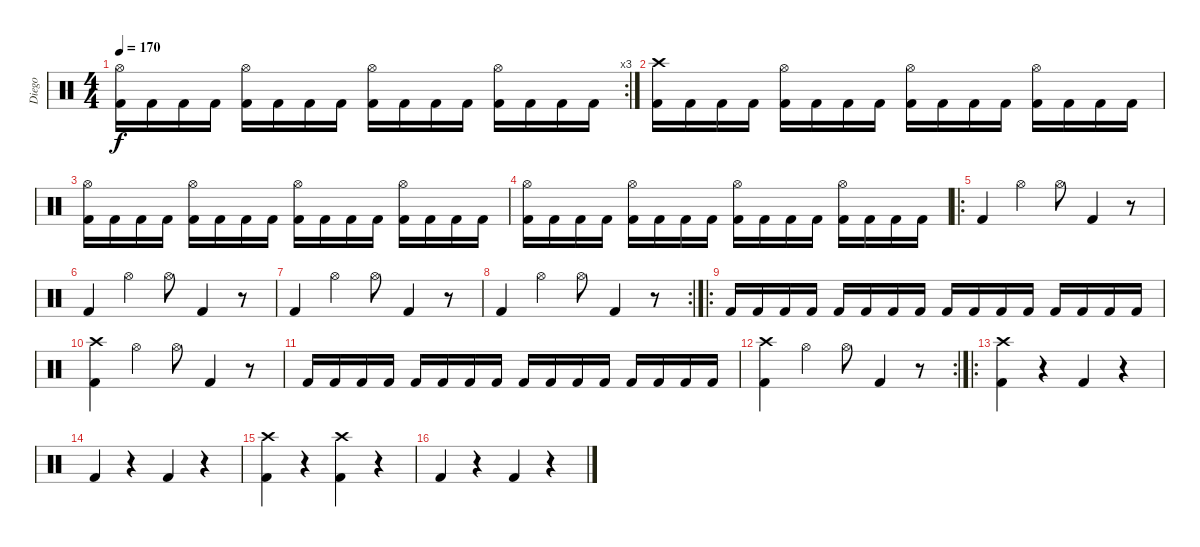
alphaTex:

\track ("Diego" "Diego") {instrument percussion}
\staff {score}
\articulation defaults
\rc 3
\ts (4 4)
\tempo 170
\clef neutral
\ks c
("Kick (hit) 2" "Hi-Hat (open)").16{dy f} "Kick (hit) 2".16 "Kick (hit) 2".16 "Kick (hit) 2".16 ("Kick (hit) 2" "Hi-Hat (open)").16 "Kick (hit) 2".16 "Kick (hit) 2".16 "Kick (hit) 2".16 ("Kick (hit) 2" "Hi-Hat (open)").16 "Kick (hit) 2".16 "Kick (hit) 2".16 "Kick (hit) 2".16 ("Kick (hit) 2" "Hi-Hat (open)").16 "Kick (hit) 2".16 "Kick (hit) 2".16 "Kick (hit) 2".16 |
("Kick (hit) 2" "Crash high (hit)").16 "Kick (hit) 2".16 "Kick (hit) 2".16 "Kick (hit) 2".16 ("Kick (hit) 2" "Hi-Hat (open)").16 "Kick (hit) 2".16 "Kick (hit) 2".16 "Kick (hit) 2".16 ("Kick (hit) 2" "Hi-Hat (open)").16 "Kick (hit) 2".16 "Kick (hit) 2".16 "Kick (hit) 2".16 ("Kick (hit) 2" "Hi-Hat (open)").16 "Kick (hit) 2".16 "Kick (hit) 2".16 "Kick (hit) 2".16 |
("Kick (hit) 2" "Hi-Hat (open)").16 "Kick (hit) 2".16 "Kick (hit) 2".16 "Kick (hit) 2".16 ("Kick (hit) 2" "Hi-Hat (open)").16 "Kick (hit) 2".16 "Kick (hit) 2".16 "Kick (hit) 2".16 ("Kick (hit) 2" "Hi-Hat (open)").16 "Kick (hit) 2".16 "Kick (hit) 2".16 "Kick (hit) 2".16 ("Kick (hit) 2" "Hi-Hat (open)").16 "Kick (hit) 2".16 "Kick (hit) 2".16 "Kick (hit) 2".16 |
("Kick (hit) 2" "Hi-Hat (open)").16 "Kick (hit) 2".16 "Kick (hit) 2".16 "Kick (hit) 2".16 ("Kick (hit) 2" "Hi-Hat (open)").16 "Kick (hit) 2".16 "Kick (hit) 2".16 "Kick (hit) 2".16 ("Kick (hit) 2" "Hi-Hat (open)").16 "Kick (hit) 2".16 "Kick (hit) 2".16 "Kick (hit) 2".16 ("Kick (hit) 2" "Hi-Hat (open)").16 "Kick (hit) 2".16 "Kick (hit) 2".16 "Kick (hit) 2".16 |
\ro "Kick (hit) 2".4 "Hi-Hat (open)".4 "Hi-Hat (open)".8 "Kick (hit) 2".4
r.8 |
"Kick (hit) 2".4 "Hi-Hat (open)".4 "Hi-Hat (open)".8 "Kick (hit) 2".4 r.8 |
"Kick (hit) 2".4 "Hi-Hat (open)".4 "Hi-Hat (open)".8 "Kick (hit) 2".4 r.8 |
\rc 2 "Kick (hit) 2".4 "Hi-Hat (open)".4 "Hi-Hat (open)".8 "Kick (hit) 2".4
r.8 |
\ro "Kick (hit) 2".16 "Kick (hit) 2".16 "Kick (hit) 2".16 "Kick (hit) 2".16 "Kick (hit) 2".16 "Kick (hit) 2".16 "Kick (hit) 2".16 "Kick (hit) 2".16 "Kick (hit) 2".16 "Kick (hit) 2".16 "Kick (hit) 2".16 "Kick (hit) 2".16 "Kick (hit) 2".16 "Kick (hit) 2".16 "Kick (hit) 2".16 "Kick (hit) 2".16
|
("Kick (hit) 2" "Crash high (hit)").4 "Hi-Hat (open)".4 "Hi-Hat (open)".8 "Kick (hit) 2".4 r.8 |
"Kick (hit) 2".16 "Kick (hit) 2".16 "Kick (hit) 2".16 "Kick (hit) 2".16 "Kick (hit) 2".16 "Kick (hit) 2".16 "Kick (hit) 2".16 "Kick (hit) 2".16 "Kick (hit) 2".16 "Kick (hit) 2".16 "Kick (hit) 2".16 "Kick (hit) 2".16 "Kick (hit) 2".16 "Kick (hit) 2".16 "Kick (hit) 2".16 "Kick (hit) 2".16 |
\rc 2
("Kick (hit) 2" "Crash high (hit)").4 "Hi-Hat (open)".4 "Hi-Hat (open)".8 "Kick (hit) 2".4 r.8 |
\ro
("Crash high (hit)" "Kick (hit) 2").4 r.4 "Kick (hit) 2".4 r.4 |
"Kick (hit) 2".4 r.4 "Kick (hit) 2".4 r.4 |
("Crash high (hit)" "Kick (hit) 2").4 r.4 ("Crash high (hit)" "Kick (hit) 2").4 r.4 |
"Kick (hit) 2".4 r.4 "Kick (hit) 2".4 r.4
